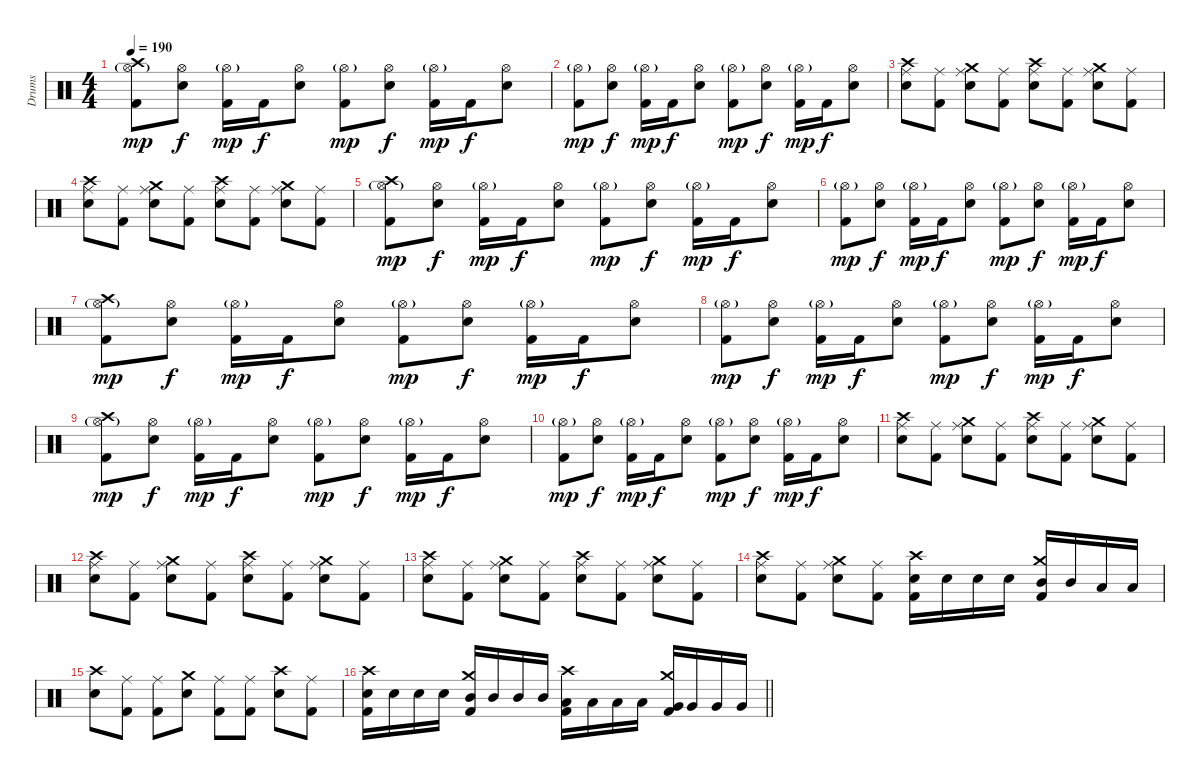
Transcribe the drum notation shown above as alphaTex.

\track ("Drums" "Drums") {instrument percussion}
\staff {score}
\articulation defaults
\ts (4 4)
\tempo 190
\clef neutral
\ks c
("Crash high (hit)" "Hi-Hat (open)"{g} "Kick (hit) 2").8{dy mp} ("Hi-Hat (open)" "Snare (hit) 2").8{dy f} ("Hi-Hat (open)"{g} "Kick (hit) 2").16{dy mp} "Kick (hit) 2".16{dy f} ("Hi-Hat (open)" "Snare (hit) 2").8 ("Hi-Hat (open)"{g} "Kick (hit) 2").8{dy mp} ("Hi-Hat (open)" "Snare (hit) 2").8{dy f} ("Hi-Hat (open)"{g} "Kick (hit) 2").16{dy mp} "Kick (hit) 2".16{dy f} ("Hi-Hat (open)" "Snare (hit) 2").8 |
("Hi-Hat (open)"{g} "Kick (hit) 2").8{dy mp} ("Hi-Hat (open)" "Snare (hit) 2").8{dy f} ("Hi-Hat (open)"{g} "Kick (hit) 2").16{dy mp} "Kick (hit) 2".16{dy f} ("Hi-Hat (open)" "Snare (hit) 2").8 ("Hi-Hat (open)"{g} "Kick (hit) 2").8{dy mp} ("Hi-Hat (open)" "Snare (hit) 2").8{dy f} ("Hi-Hat (open)"{g} "Kick (hit) 2").16{dy mp} "Kick (hit) 2".16{dy f} ("Hi-Hat (open)" "Snare (hit) 2").8 |
("Crash high (hit)" "Ride (middle)" "Snare (hit) 2").8 ("Ride (middle)" "Kick (hit) 2").8 ("Crash medium (hit)" "Ride (middle)" "Snare (hit) 2").8 ("Ride (middle)" "Kick (hit) 2").8 ("Crash high (hit)" "Ride (middle)" "Snare (hit) 2").8 ("Ride (middle)" "Kick (hit) 2").8 ("Crash medium (hit)" "Ride (middle)" "Snare (hit) 2").8 ("Ride (middle)" "Kick (hit) 2").8 |
("Crash high (hit)" "Ride (middle)" "Snare (hit) 2").8 ("Ride (middle)" "Kick (hit) 2").8 ("Crash medium (hit)" "Ride (middle)" "Snare (hit) 2").8 ("Ride (middle)" "Kick (hit) 2").8 ("Crash high (hit)" "Ride (middle)" "Snare (hit) 2").8 ("Ride (middle)" "Kick (hit) 2").8 ("Crash medium (hit)" "Ride (middle)" "Snare (hit) 2").8 ("Ride (middle)" "Kick (hit) 2").8 |
("Crash high (hit)" "Hi-Hat (open)"{g} "Kick (hit) 2").8{dy mp} ("Hi-Hat (open)" "Snare (hit) 2").8{dy f} ("Hi-Hat (open)"{g} "Kick (hit) 2").16{dy mp} "Kick (hit) 2".16{dy f} ("Hi-Hat (open)" "Snare (hit) 2").8 ("Hi-Hat (open)"{g} "Kick (hit) 2").8{dy mp} ("Hi-Hat (open)" "Snare (hit) 2").8{dy f} ("Hi-Hat (open)"{g} "Kick (hit) 2").16{dy mp} "Kick (hit) 2".16{dy f} ("Hi-Hat (open)" "Snare (hit) 2").8 |
("Hi-Hat (open)"{g} "Kick (hit) 2").8{dy mp} ("Hi-Hat (open)" "Snare (hit) 2").8{dy f} ("Hi-Hat (open)"{g} "Kick (hit) 2").16{dy mp} "Kick (hit) 2".16{dy f} ("Hi-Hat (open)" "Snare (hit) 2").8 ("Hi-Hat (open)"{g} "Kick (hit) 2").8{dy mp} ("Hi-Hat (open)" "Snare (hit) 2").8{dy f} ("Hi-Hat (open)"{g} "Kick (hit) 2").16{dy mp} "Kick (hit) 2".16{dy f} ("Hi-Hat (open)" "Snare (hit) 2").8 |
("Crash high (hit)" "Hi-Hat (open)"{g} "Kick (hit) 2").8{dy mp} ("Hi-Hat (open)" "Snare (hit) 2").8{dy f} ("Hi-Hat (open)"{g} "Kick (hit) 2").16{dy mp} "Kick (hit) 2".16{dy f} ("Hi-Hat (open)" "Snare (hit) 2").8 ("Hi-Hat (open)"{g} "Kick (hit) 2").8{dy mp} ("Hi-Hat (open)" "Snare (hit) 2").8{dy f} ("Hi-Hat (open)"{g} "Kick (hit) 2").16{dy mp} "Kick (hit) 2".16{dy f} ("Hi-Hat (open)" "Snare (hit) 2").8 |
("Hi-Hat (open)"{g} "Kick (hit) 2").8{dy mp} ("Hi-Hat (open)" "Snare (hit) 2").8{dy f} ("Hi-Hat (open)"{g} "Kick (hit) 2").16{dy mp} "Kick (hit) 2".16{dy f} ("Hi-Hat (open)" "Snare (hit) 2").8 ("Hi-Hat (open)"{g} "Kick (hit) 2").8{dy mp} ("Hi-Hat (open)" "Snare (hit) 2").8{dy f} ("Hi-Hat (open)"{g} "Kick (hit) 2").16{dy mp} "Kick (hit) 2".16{dy f} ("Hi-Hat (open)" "Snare (hit) 2").8 |
("Crash high (hit)" "Hi-Hat (open)"{g} "Kick (hit) 2").8{dy mp} ("Hi-Hat (open)" "Snare (hit) 2").8{dy f} ("Hi-Hat (open)"{g} "Kick (hit) 2").16{dy mp} "Kick (hit) 2".16{dy f} ("Hi-Hat (open)" "Snare (hit) 2").8 ("Hi-Hat (open)"{g} "Kick (hit) 2").8{dy mp} ("Hi-Hat (open)" "Snare (hit) 2").8{dy f} ("Hi-Hat (open)"{g} "Kick (hit) 2").16{dy mp} "Kick (hit) 2".16{dy f} ("Hi-Hat (open)" "Snare (hit) 2").8 |
("Hi-Hat (open)"{g} "Kick (hit) 2").8{dy mp} ("Hi-Hat (open)" "Snare (hit) 2").8{dy f} ("Hi-Hat (open)"{g} "Kick (hit) 2").16{dy mp} "Kick (hit) 2".16{dy f} ("Hi-Hat (open)" "Snare (hit) 2").8 ("Hi-Hat (open)"{g} "Kick (hit) 2").8{dy mp} ("Hi-Hat (open)" "Snare (hit) 2").8{dy f} ("Hi-Hat (open)"{g} "Kick (hit) 2").16{dy mp} "Kick (hit) 2".16{dy f} ("Hi-Hat (open)" "Snare (hit) 2").8 |
("Crash high (hit)" "Ride (middle)" "Snare (hit) 2").8 ("Ride (middle)" "Kick (hit) 2").8 ("Crash medium (hit)" "Ride (middle)" "Snare (hit) 2").8 ("Ride (middle)" "Kick (hit) 2").8 ("Crash high (hit)" "Ride (middle)" "Snare (hit) 2").8 ("Ride (middle)" "Kick (hit) 2").8 ("Crash medium (hit)" "Ride (middle)" "Snare (hit) 2").8 ("Ride (middle)" "Kick (hit) 2").8 |
("Crash high (hit)" "Ride (middle)" "Snare (hit) 2").8 ("Ride (middle)" "Kick (hit) 2").8 ("Crash medium (hit)" "Ride (middle)" "Snare (hit) 2").8 ("Ride (middle)" "Kick (hit) 2").8 ("Crash high (hit)" "Ride (middle)" "Snare (hit) 2").8 ("Ride (middle)" "Kick (hit) 2").8 ("Crash medium (hit)" "Ride (middle)" "Snare (hit) 2").8 ("Ride (middle)" "Kick (hit) 2").8 |
("Crash high (hit)" "Ride (middle)" "Snare (hit) 2").8 ("Ride (middle)" "Kick (hit) 2").8 ("Crash medium (hit)" "Ride (middle)" "Snare (hit) 2").8 ("Ride (middle)" "Kick (hit) 2").8 ("Crash high (hit)" "Ride (middle)" "Snare (hit) 2").8 ("Ride (middle)" "Kick (hit) 2").8 ("Crash medium (hit)" "Ride (middle)" "Snare (hit) 2").8 ("Ride (middle)" "Kick (hit) 2").8 |
("Crash high (hit)" "Ride (middle)" "Snare (hit) 2").8 ("Ride (middle)" "Kick (hit) 2").8 ("Crash medium (hit)" "Ride (middle)" "Snare (hit) 2").8 ("Ride (middle)" "Kick (hit) 2").8 ("Crash high (hit)" "Snare (hit) 2" "Kick (hit) 2").16 "Snare (hit) 2".16 "Snare (hit) 2".16 "Snare (hit) 2".16 ("Crash medium (hit)" "Mid Tom (hit)" "Kick (hit) 2").16 "Mid Tom (hit)".16 "Low Tom (hit)".16 "Low Tom (hit)".16 |
("Crash high (hit)" "Snare (hit) 2").8 ("Ride (middle)" "Kick (hit) 2").8 ("Ride (middle)" "Kick (hit) 2").8 ("Crash medium (hit)" "Snare (hit) 2").8 ("Ride (middle)" "Kick (hit) 2").8 ("Ride (middle)" "Kick (hit) 2").8 ("Crash high (hit)" "Snare (hit) 2").8 ("Ride (middle)" "Kick (hit) 2").8 |
\barLineRight lightlight
("Crash high (hit)" "Snare (hit) 2" "Kick (hit) 2").16 "Snare (hit) 2".16 "Snare (hit) 2".16 "Snare (hit) 2".16 ("Crash medium (hit)" "Mid Tom (hit)" "Kick (hit) 2").16 "Mid Tom (hit)".16 "Mid Tom (hit)".16 "Mid Tom (hit)".16 ("Crash high (hit)" "Low Tom (hit)" "Kick (hit) 2").16 "Low Tom (hit)".16 "Low Tom (hit)".16 "Low Tom (hit)".16 ("Crash medium (hit)" "Very Low Tom (hit)" "Kick (hit) 2").16 "Very Low Tom (hit)".16 "Very Low Tom (hit)".16 "Very Low Tom (hit)".16
